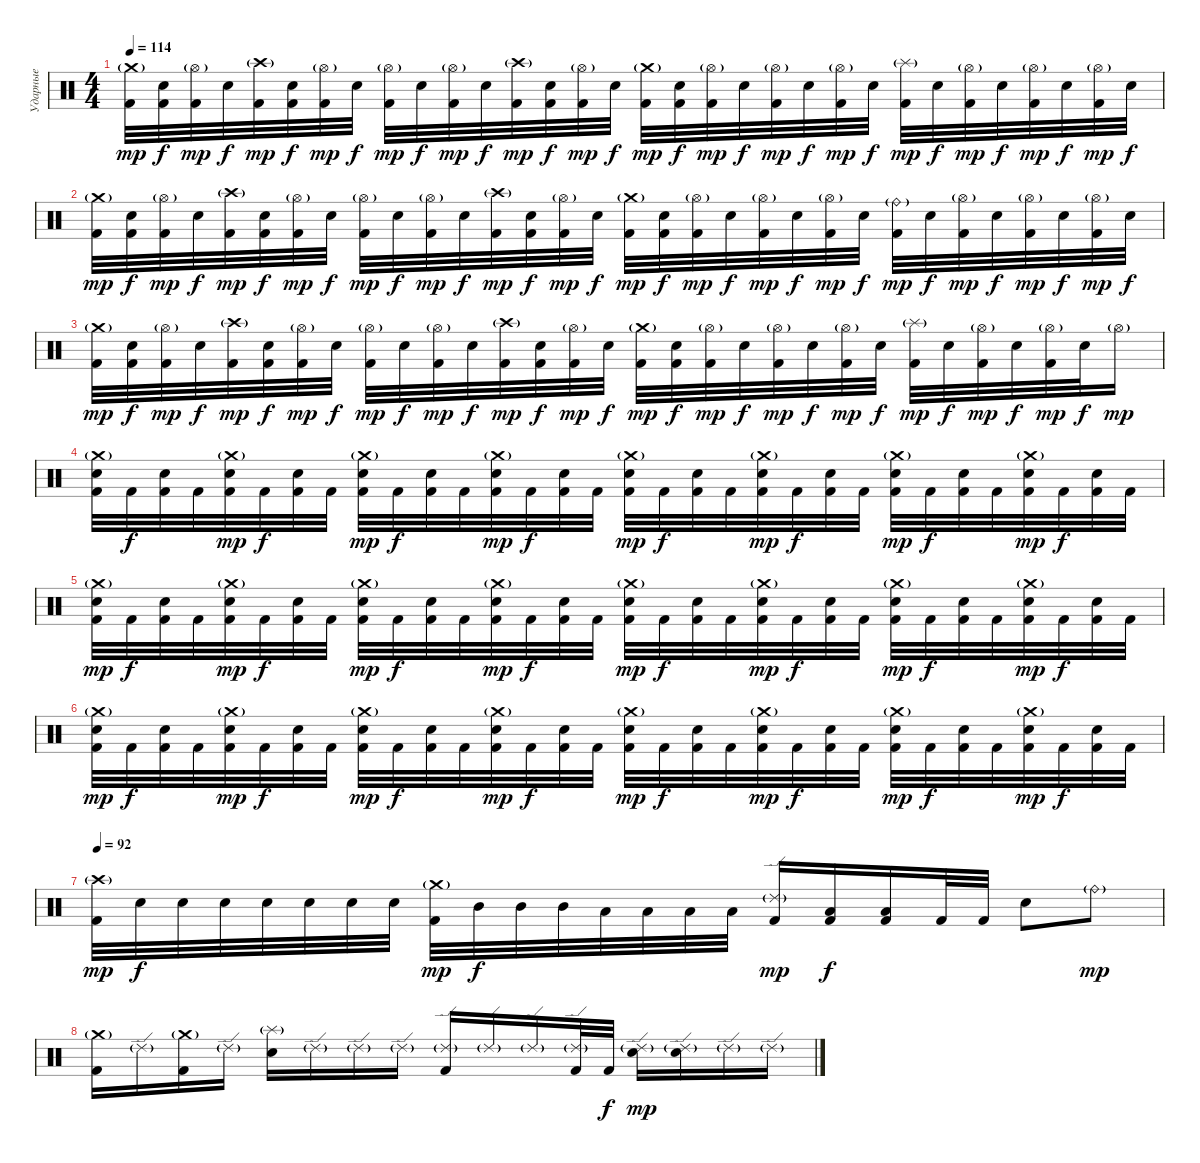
\track ("Ударные" "Ударные") {instrument percussion}
\staff {score}
\articulation defaults
\ts (4 4)
\tempo 114
\clef neutral
\ks c
("Crash medium (hit)"{g} "Kick (hit) 2").32{dy mp} ("Electric Snare (hit)" "Kick (hit) 2").32{dy f} ("Hi-Hat (open)"{g} "Kick (hit) 2").32{dy mp} "Electric Snare (hit)".32{dy f} ("Crash high (hit)"{g} "Kick (hit) 2").32{dy mp} ("Electric Snare (hit)" "Kick (hit) 2").32{dy f} ("Hi-Hat (open)"{g} "Kick (hit) 2").32{dy mp} "Electric Snare (hit)".32{dy f} ("Hi-Hat (open)"{g} "Kick (hit) 2").32{dy mp} "Electric Snare (hit)".32{dy f} ("Hi-Hat (open)"{g} "Kick (hit) 2").32{dy mp} "Electric Snare (hit)".32{dy f} ("Crash high (hit)"{g} "Kick (hit) 2").32{dy mp} ("Electric Snare (hit)" "Kick (hit) 2").32{dy f} ("Hi-Hat (open)"{g} "Kick (hit) 2").32{dy mp} "Electric Snare (hit)".32{dy f} ("Crash medium (hit)"{g} "Kick (hit) 2").32{dy mp} ("Electric Snare (hit)" "Kick (hit) 2").32{dy f} ("Hi-Hat (open)"{g} "Kick (hit) 2").32{dy mp} "Electric Snare (hit)".32{dy f} ("Hi-Hat (open)"{g} "Kick (hit) 2").32{dy mp} "Electric Snare (hit)".32{dy f} ("Hi-Hat (open)"{g} "Kick (hit) 2").32{dy mp} "Electric Snare (hit)".32{dy f} ("Splash (hit)"{g} "Kick (hit) 2").32{dy mp} "Electric Snare (hit)".32{dy f} ("Hi-Hat (open)"{g} "Kick (hit) 2").32{dy mp} "Electric Snare (hit)".32{dy f} ("Hi-Hat (open)"{g} "Kick (hit) 2").32{dy mp} "Electric Snare (hit)".32{dy f} ("Hi-Hat (open)"{g} "Kick (hit) 2").32{dy mp} "Electric Snare (hit)".32{dy f} |
("Crash medium (hit)"{g} "Kick (hit) 2").32{dy mp} ("Electric Snare (hit)" "Kick (hit) 2").32{dy f} ("Hi-Hat (open)"{g} "Kick (hit) 2").32{dy mp} "Electric Snare (hit)".32{dy f} ("Crash high (hit)"{g} "Kick (hit) 2").32{dy mp} ("Electric Snare (hit)" "Kick (hit) 2").32{dy f} ("Hi-Hat (open)"{g} "Kick (hit) 2").32{dy mp} "Electric Snare (hit)".32{dy f} ("Hi-Hat (open)"{g} "Kick (hit) 2").32{dy mp} "Electric Snare (hit)".32{dy f} ("Hi-Hat (open)"{g} "Kick (hit) 2").32{dy mp} "Electric Snare (hit)".32{dy f} ("Crash high (hit)"{g} "Kick (hit) 2").32{dy mp} ("Electric Snare (hit)" "Kick (hit) 2").32{dy f} ("Hi-Hat (open)"{g} "Kick (hit) 2").32{dy mp} "Electric Snare (hit)".32{dy f} ("Crash medium (hit)"{g} "Kick (hit) 2").32{dy mp} ("Electric Snare (hit)" "Kick (hit) 2").32{dy f} ("Hi-Hat (open)"{g} "Kick (hit) 2").32{dy mp} "Electric Snare (hit)".32{dy f} ("Hi-Hat (open)"{g} "Kick (hit) 2").32{dy mp} "Electric Snare (hit)".32{dy f} ("Hi-Hat (open)"{g} "Kick (hit) 2").32{dy mp} "Electric Snare (hit)".32{dy f} ("Ride (bell)"{g} "Kick (hit) 2").32{dy mp} "Electric Snare (hit)".32{dy f} ("Hi-Hat (open)"{g} "Kick (hit) 2").32{dy mp} "Electric Snare (hit)".32{dy f} ("Hi-Hat (open)"{g} "Kick (hit) 2").32{dy mp} "Electric Snare (hit)".32{dy f} ("Hi-Hat (open)"{g} "Kick (hit) 2").32{dy mp} "Electric Snare (hit)".32{dy f} |
("Crash medium (hit)"{g} "Kick (hit) 2").32{dy mp} ("Electric Snare (hit)" "Kick (hit) 2").32{dy f} ("Hi-Hat (open)"{g} "Kick (hit) 2").32{dy mp} "Electric Snare (hit)".32{dy f} ("Crash high (hit)"{g} "Kick (hit) 2").32{dy mp} ("Electric Snare (hit)" "Kick (hit) 2").32{dy f} ("Hi-Hat (open)"{g} "Kick (hit) 2").32{dy mp} "Electric Snare (hit)".32{dy f} ("Hi-Hat (open)"{g} "Kick (hit) 2").32{dy mp} "Electric Snare (hit)".32{dy f} ("Hi-Hat (open)"{g} "Kick (hit) 2").32{dy mp} "Electric Snare (hit)".32{dy f} ("Crash high (hit)"{g} "Kick (hit) 2").32{dy mp} ("Electric Snare (hit)" "Kick (hit) 2").32{dy f} ("Hi-Hat (open)"{g} "Kick (hit) 2").32{dy mp} "Electric Snare (hit)".32{dy f} ("Crash medium (hit)"{g} "Kick (hit) 2").32{dy mp} ("Electric Snare (hit)" "Kick (hit) 2").32{dy f} ("Hi-Hat (open)"{g} "Kick (hit) 2").32{dy mp} "Electric Snare (hit)".32{dy f} ("Hi-Hat (open)"{g} "Kick (hit) 2").32{dy mp} "Electric Snare (hit)".32{dy f} ("Hi-Hat (open)"{g} "Kick (hit) 2").32{dy mp} "Electric Snare (hit)".32{dy f} ("Splash (hit)"{g} "Kick (hit) 2").32{dy mp} "Electric Snare (hit)".32{dy f} ("Hi-Hat (open)"{g} "Kick (hit) 2").32{dy mp} "Electric Snare (hit)".32{dy f} ("Hi-Hat (open)"{g} "Kick (hit) 2").32{dy mp} "Electric Snare (hit)".32{dy f} "Hi-Hat (open)"{g}.16{dy mp} |
("Crash medium (hit)"{g} "Electric Snare (hit)" "Kick (hit) 2").32 "Kick (hit) 2".32{dy f} ("Electric Snare (hit)" "Kick (hit) 2").32 "Kick (hit) 2".32 ("Crash medium (hit)"{g} "Electric Snare (hit)" "Kick (hit) 2").32{dy mp} "Kick (hit) 2".32{dy f} ("Electric Snare (hit)" "Kick (hit) 2").32 "Kick (hit) 2".32 ("Crash medium (hit)"{g} "Electric Snare (hit)" "Kick (hit) 2").32{dy mp} "Kick (hit) 2".32{dy f} ("Electric Snare (hit)" "Kick (hit) 2").32 "Kick (hit) 2".32 ("Crash medium (hit)"{g} "Electric Snare (hit)" "Kick (hit) 2").32{dy mp} "Kick (hit) 2".32{dy f} ("Electric Snare (hit)" "Kick (hit) 2").32 "Kick (hit) 2".32 ("Crash medium (hit)"{g} "Electric Snare (hit)" "Kick (hit) 2").32{dy mp} "Kick (hit) 2".32{dy f} ("Electric Snare (hit)" "Kick (hit) 2").32 "Kick (hit) 2".32 ("Crash medium (hit)"{g} "Electric Snare (hit)" "Kick (hit) 2").32{dy mp} "Kick (hit) 2".32{dy f} ("Electric Snare (hit)" "Kick (hit) 2").32 "Kick (hit) 2".32 ("Crash medium (hit)"{g} "Electric Snare (hit)" "Kick (hit) 2").32{dy mp} "Kick (hit) 2".32{dy f} ("Electric Snare (hit)" "Kick (hit) 2").32 "Kick (hit) 2".32 ("Crash medium (hit)"{g} "Electric Snare (hit)" "Kick (hit) 2").32{dy mp} "Kick (hit) 2".32{dy f} ("Electric Snare (hit)" "Kick (hit) 2").32 "Kick (hit) 2".32 |
("Crash medium (hit)"{g} "Electric Snare (hit)" "Kick (hit) 2").32{dy mp} "Kick (hit) 2".32{dy f} ("Electric Snare (hit)" "Kick (hit) 2").32 "Kick (hit) 2".32 ("Crash medium (hit)"{g} "Electric Snare (hit)" "Kick (hit) 2").32{dy mp} "Kick (hit) 2".32{dy f} ("Electric Snare (hit)" "Kick (hit) 2").32 "Kick (hit) 2".32 ("Crash medium (hit)"{g} "Electric Snare (hit)" "Kick (hit) 2").32{dy mp} "Kick (hit) 2".32{dy f} ("Electric Snare (hit)" "Kick (hit) 2").32 "Kick (hit) 2".32 ("Crash medium (hit)"{g} "Electric Snare (hit)" "Kick (hit) 2").32{dy mp} "Kick (hit) 2".32{dy f} ("Electric Snare (hit)" "Kick (hit) 2").32 "Kick (hit) 2".32 ("Crash medium (hit)"{g} "Electric Snare (hit)" "Kick (hit) 2").32{dy mp} "Kick (hit) 2".32{dy f} ("Electric Snare (hit)" "Kick (hit) 2").32 "Kick (hit) 2".32 ("Crash medium (hit)"{g} "Electric Snare (hit)" "Kick (hit) 2").32{dy mp} "Kick (hit) 2".32{dy f} ("Electric Snare (hit)" "Kick (hit) 2").32 "Kick (hit) 2".32 ("Crash medium (hit)"{g} "Electric Snare (hit)" "Kick (hit) 2").32{dy mp} "Kick (hit) 2".32{dy f} ("Electric Snare (hit)" "Kick (hit) 2").32 "Kick (hit) 2".32 ("Crash medium (hit)"{g} "Electric Snare (hit)" "Kick (hit) 2").32{dy mp} "Kick (hit) 2".32{dy f} ("Electric Snare (hit)" "Kick (hit) 2").32 "Kick (hit) 2".32 |
("Crash medium (hit)"{g} "Electric Snare (hit)" "Kick (hit) 2").32{dy mp} "Kick (hit) 2".32{dy f} ("Electric Snare (hit)" "Kick (hit) 2").32 "Kick (hit) 2".32 ("Crash medium (hit)"{g} "Electric Snare (hit)" "Kick (hit) 2").32{dy mp} "Kick (hit) 2".32{dy f} ("Electric Snare (hit)" "Kick (hit) 2").32 "Kick (hit) 2".32 ("Crash medium (hit)"{g} "Electric Snare (hit)" "Kick (hit) 2").32{dy mp} "Kick (hit) 2".32{dy f} ("Electric Snare (hit)" "Kick (hit) 2").32 "Kick (hit) 2".32 ("Crash medium (hit)"{g} "Electric Snare (hit)" "Kick (hit) 2").32{dy mp} "Kick (hit) 2".32{dy f} ("Electric Snare (hit)" "Kick (hit) 2").32 "Kick (hit) 2".32 ("Crash medium (hit)"{g} "Electric Snare (hit)" "Kick (hit) 2").32{dy mp} "Kick (hit) 2".32{dy f} ("Electric Snare (hit)" "Kick (hit) 2").32 "Kick (hit) 2".32 ("Crash medium (hit)"{g} "Electric Snare (hit)" "Kick (hit) 2").32{dy mp} "Kick (hit) 2".32{dy f} ("Electric Snare (hit)" "Kick (hit) 2").32 "Kick (hit) 2".32 ("Crash medium (hit)"{g} "Electric Snare (hit)" "Kick (hit) 2").32{dy mp} "Kick (hit) 2".32{dy f} ("Electric Snare (hit)" "Kick (hit) 2").32 "Kick (hit) 2".32 ("Crash medium (hit)"{g} "Electric Snare (hit)" "Kick (hit) 2").32{dy mp} "Kick (hit) 2".32{dy f} ("Electric Snare (hit)" "Kick (hit) 2").32 "Kick (hit) 2".32 |
\tempo 92
("Crash high (hit)"{g} "Kick (hit) 2").32{dy mp} "Electric Snare (hit)".32{dy f} "Electric Snare (hit)".32 "Electric Snare (hit)".32 "Electric Snare (hit)".32 "Electric Snare (hit)".32 "Electric Snare (hit)".32 "Electric Snare (hit)".32 ("Crash medium (hit)"{g} "Kick (hit) 2").32{dy mp} "Mid Tom (hit)".32{dy f} "Mid Tom (hit)".32 "Mid Tom (hit)".32 "Low Tom (hit)".32 "Low Tom (hit)".32 "Low Tom (hit)".32 "Low Tom (hit)".32 ("Ride (edge) 2"{g} "Kick (hit) 2").16{dy mp} ("Low Tom (hit)" "Kick (hit) 2").16{dy f} ("Low Tom (hit)" "Kick (hit) 2").16 "Kick (hit) 2".32 "Kick (hit) 2".32 "Electric Snare (hit)".8 "Ride (bell)"{g}.8{dy mp} |
("Crash medium (hit)"{g} "Kick (hit) 2").16 "Ride (edge) 2"{g}.16 ("Crash medium (hit)"{g} "Kick (hit) 2").16 "Ride (edge) 2"{g}.16 ("Splash (hit)"{g} "Electric Snare (hit)").16 "Ride (edge) 2"{g}.16 "Ride (edge) 2"{g}.16 "Ride (edge) 2"{g}.16 ("Ride (edge) 2"{g} "Kick (hit) 2").16 "Ride (edge) 2"{g}.16 "Ride (edge) 2"{g}.16 ("Ride (edge) 2"{g} "Kick (hit) 2").32 "Kick (hit) 2".32{dy f} ("Ride (edge) 2"{g} "Electric Snare (hit)").16{dy mp} ("Ride (edge) 2"{g} "Electric Snare (hit)").16 "Ride (edge) 2"{g}.16 "Ride (edge) 2"{g}.16
